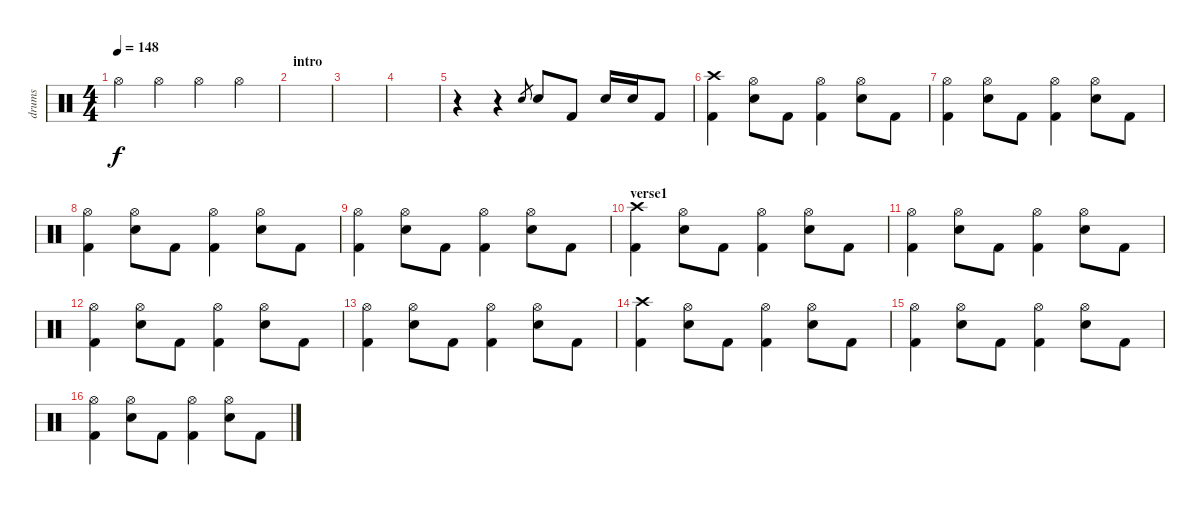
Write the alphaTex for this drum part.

\track ("drums" "drums") {instrument percussion}
\staff {score}
\articulation defaults
\ts (4 4)
\tempo 148
\clef neutral
\ks c "Hi-Hat (open)".4{dy f} "Hi-Hat (open)".4 "Hi-Hat (open)".4 "Hi-Hat (open)".4
|
\section ("" "intro")
|
|
|
r.4 r.4 "Electric Snare (hit)".8{gr} "Electric Snare (hit)".8 "Kick (hit) 2".8 "Electric Snare (hit)".16 "Electric Snare (hit)".16 "Kick (hit) 2".8 |
("Crash high (hit)" "Kick (hit) 2").4 ("Hi-Hat (open)" "Electric Snare (hit)").8 "Kick (hit) 2".8 ("Hi-Hat (open)" "Kick (hit) 2").4 ("Hi-Hat (open)" "Electric Snare (hit)").8 "Kick (hit) 2".8 |
("Hi-Hat (open)" "Kick (hit) 2").4 ("Hi-Hat (open)" "Electric Snare (hit)").8 "Kick (hit) 2".8 ("Hi-Hat (open)" "Kick (hit) 2").4 ("Hi-Hat (open)" "Electric Snare (hit)").8 "Kick (hit) 2".8 |
("Hi-Hat (open)" "Kick (hit) 2").4 ("Hi-Hat (open)" "Electric Snare (hit)").8 "Kick (hit) 2".8 ("Hi-Hat (open)" "Kick (hit) 2").4 ("Hi-Hat (open)" "Electric Snare (hit)").8 "Kick (hit) 2".8 |
("Hi-Hat (open)" "Kick (hit) 2").4 ("Hi-Hat (open)" "Electric Snare (hit)").8 "Kick (hit) 2".8 ("Hi-Hat (open)" "Kick (hit) 2").4 ("Hi-Hat (open)" "Electric Snare (hit)").8 "Kick (hit) 2".8 |
\section ("" "verse1")
("Crash high (hit)" "Kick (hit) 2").4 ("Hi-Hat (open)" "Electric Snare (hit)").8 "Kick (hit) 2".8 ("Hi-Hat (open)" "Kick (hit) 2").4 ("Hi-Hat (open)" "Electric Snare (hit)").8 "Kick (hit) 2".8 |
("Hi-Hat (open)" "Kick (hit) 2").4 ("Hi-Hat (open)" "Electric Snare (hit)").8 "Kick (hit) 2".8 ("Hi-Hat (open)" "Kick (hit) 2").4 ("Hi-Hat (open)" "Electric Snare (hit)").8 "Kick (hit) 2".8 |
("Hi-Hat (open)" "Kick (hit) 2").4 ("Hi-Hat (open)" "Electric Snare (hit)").8 "Kick (hit) 2".8 ("Hi-Hat (open)" "Kick (hit) 2").4 ("Hi-Hat (open)" "Electric Snare (hit)").8 "Kick (hit) 2".8 |
("Hi-Hat (open)" "Kick (hit) 2").4 ("Hi-Hat (open)" "Electric Snare (hit)").8 "Kick (hit) 2".8 ("Hi-Hat (open)" "Kick (hit) 2").4 ("Hi-Hat (open)" "Electric Snare (hit)").8 "Kick (hit) 2".8 |
("Crash high (hit)" "Kick (hit) 2").4 ("Hi-Hat (open)" "Electric Snare (hit)").8 "Kick (hit) 2".8 ("Hi-Hat (open)" "Kick (hit) 2").4 ("Hi-Hat (open)" "Electric Snare (hit)").8 "Kick (hit) 2".8 |
("Hi-Hat (open)" "Kick (hit) 2").4 ("Hi-Hat (open)" "Electric Snare (hit)").8 "Kick (hit) 2".8 ("Hi-Hat (open)" "Kick (hit) 2").4 ("Hi-Hat (open)" "Electric Snare (hit)").8 "Kick (hit) 2".8 |
("Hi-Hat (open)" "Kick (hit) 2").4 ("Hi-Hat (open)" "Electric Snare (hit)").8 "Kick (hit) 2".8 ("Hi-Hat (open)" "Kick (hit) 2").4 ("Hi-Hat (open)" "Electric Snare (hit)").8 "Kick (hit) 2".8
